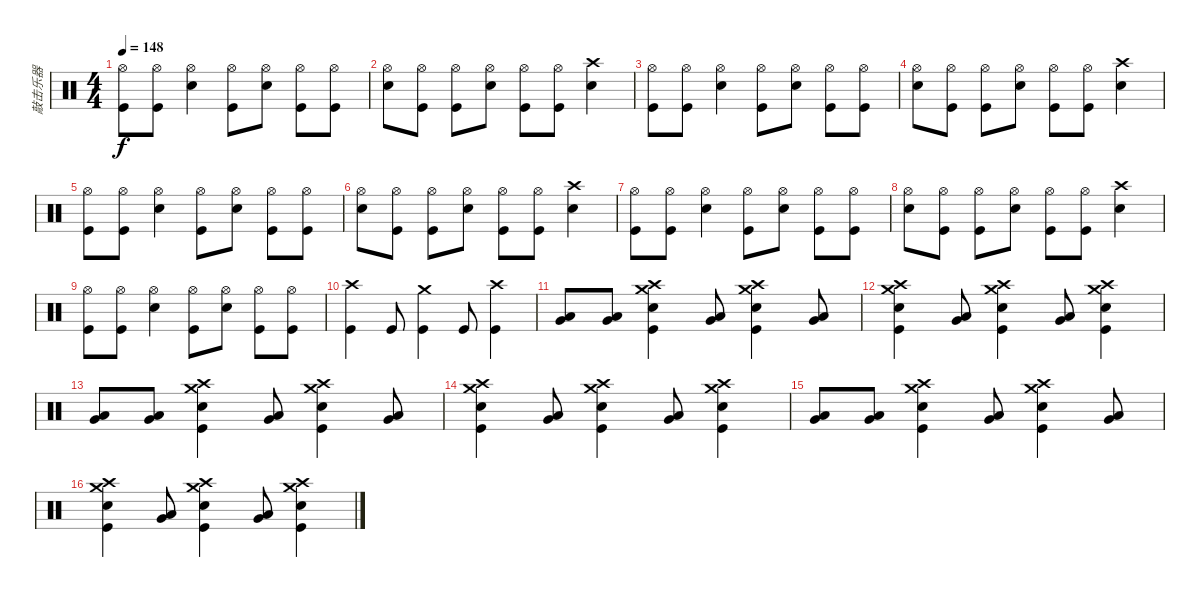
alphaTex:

\track ("敲击乐器" "敲击乐器") {instrument percussion}
\staff {score}
\articulation defaults
\ts (4 4)
\tempo 148
\clef neutral
\ks c
("Hi-Hat (open)" "Kick (hit)").8{dy f} ("Hi-Hat (open)" "Kick (hit)").8 ("Hi-Hat (open)" "Snare (hit) 2").4 ("Hi-Hat (open)" "Kick (hit)").8 ("Hi-Hat (open)" "Snare (hit) 2").8 ("Hi-Hat (open)" "Kick (hit)").8 ("Hi-Hat (open)" "Kick (hit)").8 |
("Hi-Hat (open)" "Snare (hit) 2").8 ("Hi-Hat (open)" "Kick (hit)").8 ("Hi-Hat (open)" "Kick (hit)").8 ("Hi-Hat (open)" "Snare (hit) 2").8 ("Hi-Hat (open)" "Kick (hit)").8 ("Hi-Hat (open)" "Kick (hit)").8 ("Crash high (hit)" "Snare (hit) 2").4 |
("Hi-Hat (open)" "Kick (hit)").8 ("Hi-Hat (open)" "Kick (hit)").8 ("Hi-Hat (open)" "Snare (hit) 2").4 ("Hi-Hat (open)" "Kick (hit)").8 ("Hi-Hat (open)" "Snare (hit) 2").8 ("Hi-Hat (open)" "Kick (hit)").8 ("Hi-Hat (open)" "Kick (hit)").8 |
("Hi-Hat (open)" "Snare (hit) 2").8 ("Hi-Hat (open)" "Kick (hit)").8 ("Hi-Hat (open)" "Kick (hit)").8 ("Hi-Hat (open)" "Snare (hit) 2").8 ("Hi-Hat (open)" "Kick (hit)").8 ("Hi-Hat (open)" "Kick (hit)").8 ("Crash high (hit)" "Snare (hit) 2").4 |
("Hi-Hat (open)" "Kick (hit)").8 ("Hi-Hat (open)" "Kick (hit)").8 ("Hi-Hat (open)" "Snare (hit) 2").4 ("Hi-Hat (open)" "Kick (hit)").8 ("Hi-Hat (open)" "Snare (hit) 2").8 ("Hi-Hat (open)" "Kick (hit)").8 ("Hi-Hat (open)" "Kick (hit)").8 |
("Hi-Hat (open)" "Snare (hit) 2").8 ("Hi-Hat (open)" "Kick (hit)").8 ("Hi-Hat (open)" "Kick (hit)").8 ("Hi-Hat (open)" "Snare (hit) 2").8 ("Hi-Hat (open)" "Kick (hit)").8 ("Hi-Hat (open)" "Kick (hit)").8 ("Crash high (hit)" "Snare (hit) 2").4 |
("Hi-Hat (open)" "Kick (hit)").8 ("Hi-Hat (open)" "Kick (hit)").8 ("Hi-Hat (open)" "Snare (hit) 2").4 ("Hi-Hat (open)" "Kick (hit)").8 ("Hi-Hat (open)" "Snare (hit) 2").8 ("Hi-Hat (open)" "Kick (hit)").8 ("Hi-Hat (open)" "Kick (hit)").8 |
("Hi-Hat (open)" "Snare (hit) 2").8 ("Hi-Hat (open)" "Kick (hit)").8 ("Hi-Hat (open)" "Kick (hit)").8 ("Hi-Hat (open)" "Snare (hit) 2").8 ("Hi-Hat (open)" "Kick (hit)").8 ("Hi-Hat (open)" "Kick (hit)").8 ("Crash high (hit)" "Snare (hit) 2").4 |
("Hi-Hat (open)" "Kick (hit)").8 ("Hi-Hat (open)" "Kick (hit)").8 ("Hi-Hat (open)" "Snare (hit) 2").4 ("Hi-Hat (open)" "Kick (hit)").8 ("Hi-Hat (open)" "Snare (hit) 2").8 ("Hi-Hat (open)" "Kick (hit)").8 ("Hi-Hat (open)" "Kick (hit)").8 |
("Crash high (hit)" "Kick (hit)").4 "Kick (hit)".8 ("Crash medium (hit)" "Kick (hit)").4 "Kick (hit)".8 ("Crash high (hit)" "Kick (hit)").4 |
("Low Floor Tom (hit)" "Very Low Tom (hit)").8 ("Low Floor Tom (hit)" "Very Low Tom (hit)").8 ("Crash high (hit)" "Snare (hit) 2" "Kick (hit)" "Crash medium (hit)").4 ("Very Low Tom (hit)" "Low Floor Tom (hit)").8 ("Crash high (hit)" "Kick (hit)" "Snare (hit) 2" "Crash medium (hit)").4 ("Very Low Tom (hit)" "Low Floor Tom (hit)").8 |
("Crash high (hit)" "Snare (hit) 2" "Kick (hit)" "Crash medium (hit)").4 ("Very Low Tom (hit)" "Low Floor Tom (hit)").8 ("Crash high (hit)" "Kick (hit)" "Snare (hit) 2" "Crash medium (hit)").4 ("Very Low Tom (hit)" "Low Floor Tom (hit)").8 ("Crash high (hit)" "Kick (hit)" "Snare (hit) 2" "Crash medium (hit)").4 |
("Low Floor Tom (hit)" "Very Low Tom (hit)").8 ("Low Floor Tom (hit)" "Very Low Tom (hit)").8 ("Crash high (hit)" "Snare (hit) 2" "Kick (hit)" "Crash medium (hit)").4 ("Very Low Tom (hit)" "Low Floor Tom (hit)").8 ("Crash high (hit)" "Kick (hit)" "Snare (hit) 2" "Crash medium (hit)").4 ("Very Low Tom (hit)" "Low Floor Tom (hit)").8 |
("Crash high (hit)" "Snare (hit) 2" "Kick (hit)" "Crash medium (hit)").4 ("Very Low Tom (hit)" "Low Floor Tom (hit)").8 ("Crash high (hit)" "Kick (hit)" "Snare (hit) 2" "Crash medium (hit)").4 ("Very Low Tom (hit)" "Low Floor Tom (hit)").8 ("Crash high (hit)" "Kick (hit)" "Snare (hit) 2" "Crash medium (hit)").4 |
("Low Floor Tom (hit)" "Very Low Tom (hit)").8 ("Low Floor Tom (hit)" "Very Low Tom (hit)").8 ("Crash high (hit)" "Snare (hit) 2" "Kick (hit)" "Crash medium (hit)").4 ("Very Low Tom (hit)" "Low Floor Tom (hit)").8 ("Crash high (hit)" "Kick (hit)" "Snare (hit) 2" "Crash medium (hit)").4 ("Very Low Tom (hit)" "Low Floor Tom (hit)").8 |
("Crash high (hit)" "Snare (hit) 2" "Kick (hit)" "Crash medium (hit)").4 ("Very Low Tom (hit)" "Low Floor Tom (hit)").8 ("Crash high (hit)" "Kick (hit)" "Snare (hit) 2" "Crash medium (hit)").4 ("Very Low Tom (hit)" "Low Floor Tom (hit)").8 ("Crash high (hit)" "Kick (hit)" "Snare (hit) 2" "Crash medium (hit)").4
